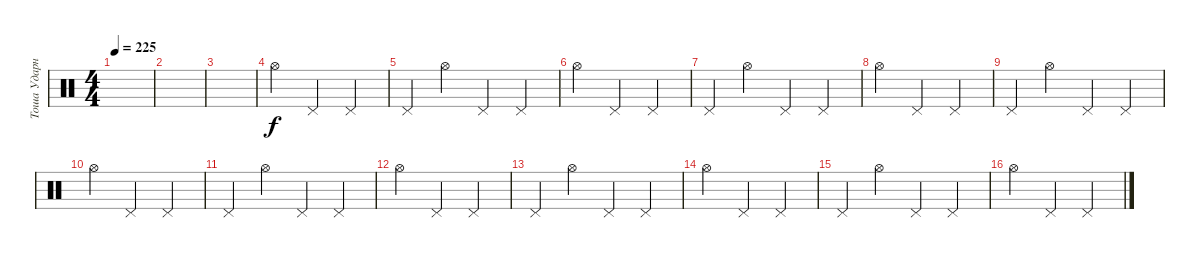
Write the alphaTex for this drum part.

\track ("Тоша Ударные" "Тоша Ударн") {instrument percussion}
\staff {score}
\articulation defaults
\ts (4 4)
\tempo 225
\clef neutral
\ks c
|
|
|
"Hi-Hat (open)".4 "Pedal Hi-Hat (hit)".4 "Pedal Hi-Hat (hit)".4 |
"Pedal Hi-Hat (hit)".4 "Hi-Hat (open)".4 "Pedal Hi-Hat (hit)".4 "Pedal Hi-Hat (hit)".4 |
"Hi-Hat (open)".4 "Pedal Hi-Hat (hit)".4 "Pedal Hi-Hat (hit)".4 |
"Pedal Hi-Hat (hit)".4 "Hi-Hat (open)".4 "Pedal Hi-Hat (hit)".4 "Pedal Hi-Hat (hit)".4 |
"Hi-Hat (open)".4 "Pedal Hi-Hat (hit)".4 "Pedal Hi-Hat (hit)".4 |
"Pedal Hi-Hat (hit)".4 "Hi-Hat (open)".4 "Pedal Hi-Hat (hit)".4 "Pedal Hi-Hat (hit)".4 |
"Hi-Hat (open)".4 "Pedal Hi-Hat (hit)".4 "Pedal Hi-Hat (hit)".4 |
"Pedal Hi-Hat (hit)".4 "Hi-Hat (open)".4 "Pedal Hi-Hat (hit)".4 "Pedal Hi-Hat (hit)".4 |
"Hi-Hat (open)".4 "Pedal Hi-Hat (hit)".4 "Pedal Hi-Hat (hit)".4 |
"Pedal Hi-Hat (hit)".4 "Hi-Hat (open)".4 "Pedal Hi-Hat (hit)".4 "Pedal Hi-Hat (hit)".4 |
"Hi-Hat (open)".4 "Pedal Hi-Hat (hit)".4 "Pedal Hi-Hat (hit)".4 |
"Pedal Hi-Hat (hit)".4 "Hi-Hat (open)".4 "Pedal Hi-Hat (hit)".4 "Pedal Hi-Hat (hit)".4 |
"Hi-Hat (open)".4 "Pedal Hi-Hat (hit)".4 "Pedal Hi-Hat (hit)".4
